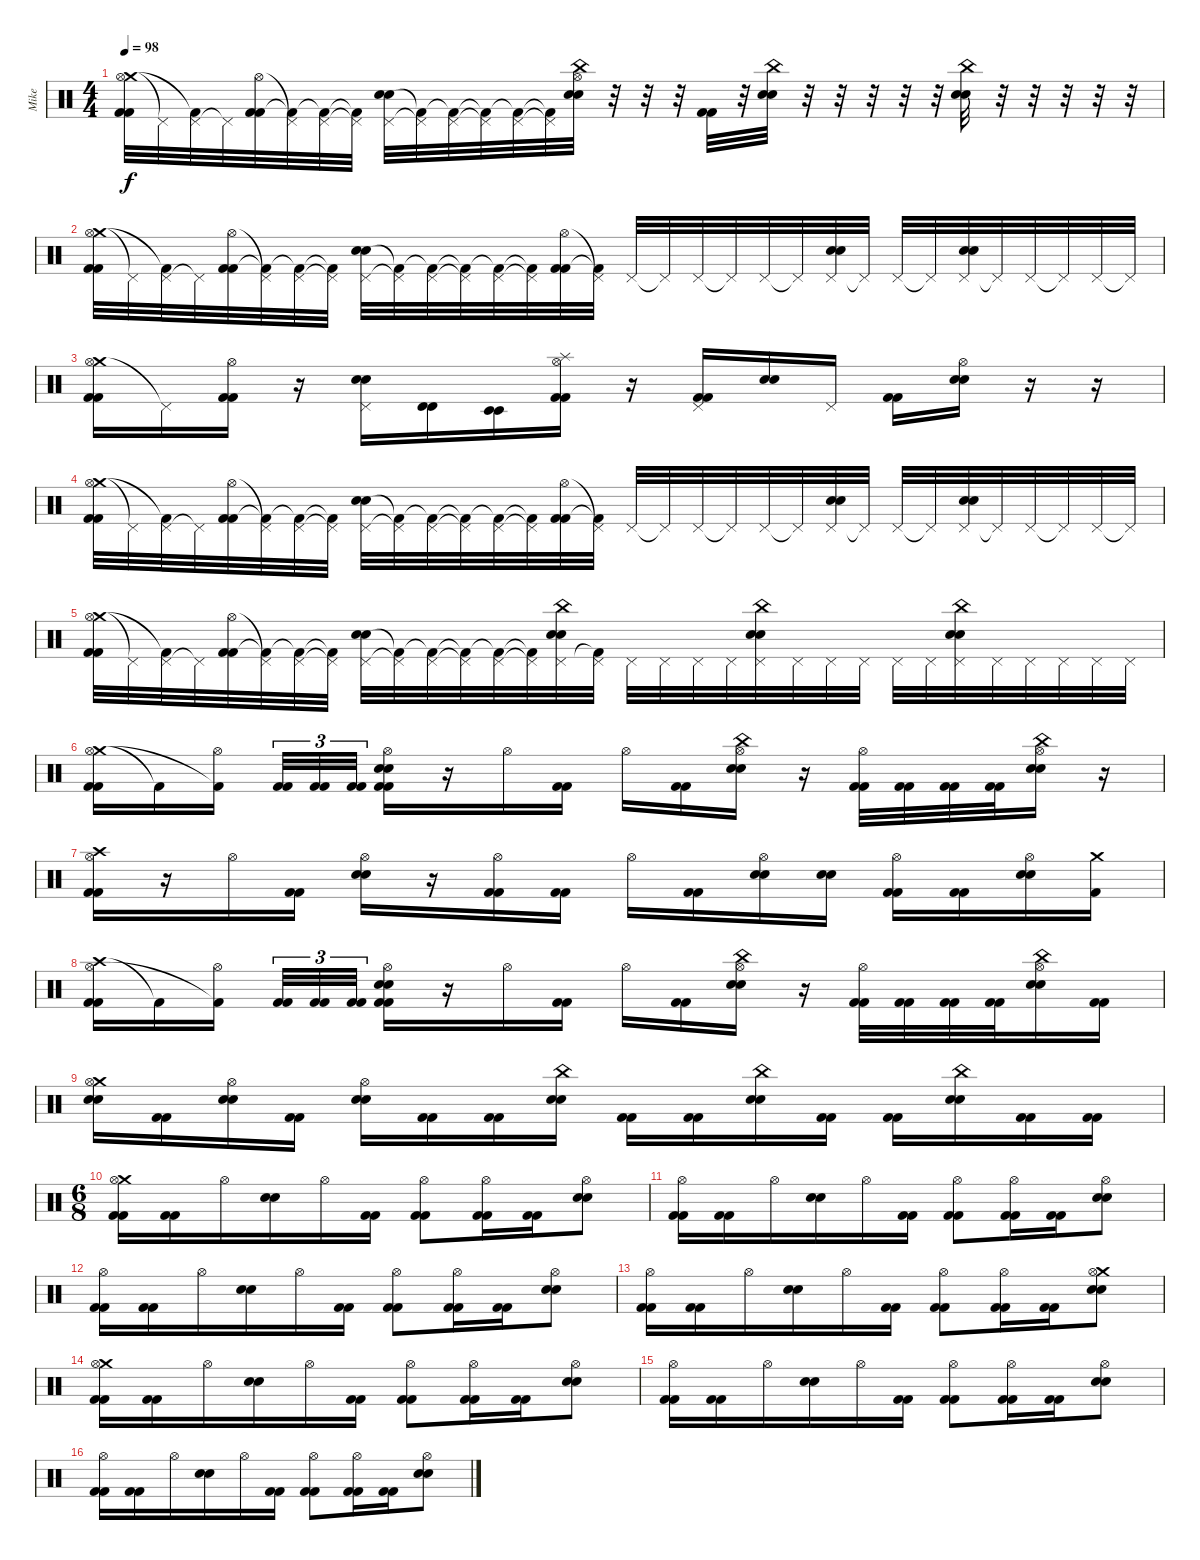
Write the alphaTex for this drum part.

\track ("Mike" "Mike") {instrument percussion}
\staff {score}
\articulation defaults
\ts (4 4)
\tempo 98
\clef neutral
\ks c
("Crash medium (hit)" "Hi-Hat (open)" "Kick (hit) 2" "Kick (hit) 2").32{dy f} "Pedal Hi-Hat (hit)"{t}.32 ("Pedal Hi-Hat (hit)" "Kick (hit) 2"{t}).32 "Pedal Hi-Hat (hit)"{t}.32 ("Hi-Hat (open)" "Kick (hit) 2" "Kick (hit) 2").32 ("Pedal Hi-Hat (hit)"{t} "Kick (hit) 2"{t}).32 ("Pedal Hi-Hat (hit)" "Kick (hit) 2"{t}).32 ("Pedal Hi-Hat (hit)"{t} "Kick (hit) 2"{t}).32 ("Pedal Hi-Hat (hit)" "Electric Snare (hit)" "Electric Snare (hit)").32 ("Pedal Hi-Hat (hit)"{t} "Kick (hit) 2"{t}).32 ("Pedal Hi-Hat (hit)" "Kick (hit) 2"{t}).32 ("Pedal Hi-Hat (hit)"{t} "Kick (hit) 2"{t}).32 ("Pedal Hi-Hat (hit)" "Kick (hit) 2"{t}).32 ("Pedal Hi-Hat (hit)"{t} "Kick (hit) 2"{t}).32 ("China (hit)" "Hi-Hat (open)" "Electric Snare (hit)" "Electric Snare (hit)").32 r.32 r.32 r.32 ("Kick (hit) 2" "Kick (hit) 2").32 r.32 ("China (hit)" "Electric Snare (hit)" "Electric Snare (hit)").32 r.32 r.32 r.32 r.32 r.32 ("China (hit)" "Electric Snare (hit)" "Electric Snare (hit)").32 r.32 r.32 r.32 r.32 r.32 |
("Crash medium (hit)" "Hi-Hat (open)" "Kick (hit) 2" "Kick (hit) 2").32 "Pedal Hi-Hat (hit)"{t}.32 ("Pedal Hi-Hat (hit)" "Kick (hit) 2"{t}).32 "Pedal Hi-Hat (hit)"{t}.32 ("Hi-Hat (open)" "Kick (hit) 2" "Kick (hit) 2").32 ("Pedal Hi-Hat (hit)"{t} "Kick (hit) 2"{t}).32 ("Pedal Hi-Hat (hit)" "Kick (hit) 2"{t}).32 ("Pedal Hi-Hat (hit)"{t} "Kick (hit) 2"{t}).32 ("Pedal Hi-Hat (hit)" "Electric Snare (hit)" "Electric Snare (hit)").32 ("Pedal Hi-Hat (hit)"{t} "Kick (hit) 2"{t}).32 ("Pedal Hi-Hat (hit)" "Kick (hit) 2"{t}).32 ("Pedal Hi-Hat (hit)"{t} "Kick (hit) 2"{t}).32 ("Pedal Hi-Hat (hit)" "Kick (hit) 2"{t}).32 ("Pedal Hi-Hat (hit)"{t} "Kick (hit) 2"{t}).32 ("Hi-Hat (open)" "Kick (hit) 2" "Kick (hit) 2").32 ("Pedal Hi-Hat (hit)"{t} "Kick (hit) 2"{t}).32 "Pedal Hi-Hat (hit)".32 "Pedal Hi-Hat (hit)"{t}.32 "Pedal Hi-Hat (hit)".32 "Pedal Hi-Hat (hit)"{t}.32 "Pedal Hi-Hat (hit)".32 "Pedal Hi-Hat (hit)"{t}.32 ("Pedal Hi-Hat (hit)" "Electric Snare (hit)" "Electric Snare (hit)").32 "Pedal Hi-Hat (hit)"{t}.32 "Pedal Hi-Hat (hit)".32 "Pedal Hi-Hat (hit)"{t}.32 ("Pedal Hi-Hat (hit)" "Electric Snare (hit)" "Electric Snare (hit)").32 "Pedal Hi-Hat (hit)"{t}.32 "Pedal Hi-Hat (hit)".32 "Pedal Hi-Hat (hit)"{t}.32 "Pedal Hi-Hat (hit)".32 "Pedal Hi-Hat (hit)"{t}.32 |
("Crash medium (hit)" "Hi-Hat (open)" "Kick (hit) 2" "Kick (hit) 2").16 "Pedal Hi-Hat (hit)"{t}.16 ("Hi-Hat (open)" "Kick (hit) 2" "Kick (hit) 2").16 r.16 ("Pedal Hi-Hat (hit)" "Electric Snare (hit)" "Electric Snare (hit)").16 ("Timbale high (hit)" "Timbale high (hit)").16 ("Timbale low (hit)" "Timbale low (hit)").16 ("Splash (hit)" "Hi-Hat (open)" "Kick (hit) 2" "Kick (hit) 2").16 r.16 ("Pedal Hi-Hat (hit)" "Kick (hit) 2" "Kick (hit) 2").16 ("Electric Snare (hit)" "Electric Snare (hit)").16 "Pedal Hi-Hat (hit)".16 ("Kick (hit) 2" "Kick (hit) 2").16 ("Hi-Hat (open)" "Electric Snare (hit)" "Electric Snare (hit)").16 r.16 r.16 |
("Crash medium (hit)" "Hi-Hat (open)" "Kick (hit) 2" "Kick (hit) 2").32 "Pedal Hi-Hat (hit)"{t}.32 ("Pedal Hi-Hat (hit)" "Kick (hit) 2"{t}).32 "Pedal Hi-Hat (hit)"{t}.32 ("Hi-Hat (open)" "Kick (hit) 2" "Kick (hit) 2").32 ("Pedal Hi-Hat (hit)"{t} "Kick (hit) 2"{t}).32 ("Pedal Hi-Hat (hit)" "Kick (hit) 2"{t}).32 ("Pedal Hi-Hat (hit)"{t} "Kick (hit) 2"{t}).32 ("Pedal Hi-Hat (hit)" "Electric Snare (hit)" "Electric Snare (hit)").32 ("Pedal Hi-Hat (hit)"{t} "Kick (hit) 2"{t}).32 ("Pedal Hi-Hat (hit)" "Kick (hit) 2"{t}).32 ("Pedal Hi-Hat (hit)"{t} "Kick (hit) 2"{t}).32 ("Pedal Hi-Hat (hit)" "Kick (hit) 2"{t}).32 ("Pedal Hi-Hat (hit)"{t} "Kick (hit) 2"{t}).32 ("Hi-Hat (open)" "Kick (hit) 2" "Kick (hit) 2").32 ("Pedal Hi-Hat (hit)"{t} "Kick (hit) 2"{t}).32 "Pedal Hi-Hat (hit)".32 "Pedal Hi-Hat (hit)"{t}.32 "Pedal Hi-Hat (hit)".32 "Pedal Hi-Hat (hit)"{t}.32 "Pedal Hi-Hat (hit)".32 "Pedal Hi-Hat (hit)"{t}.32 ("Pedal Hi-Hat (hit)" "Electric Snare (hit)" "Electric Snare (hit)").32 "Pedal Hi-Hat (hit)"{t}.32 "Pedal Hi-Hat (hit)".32 "Pedal Hi-Hat (hit)"{t}.32 ("Pedal Hi-Hat (hit)" "Electric Snare (hit)" "Electric Snare (hit)").32 "Pedal Hi-Hat (hit)"{t}.32 "Pedal Hi-Hat (hit)".32 "Pedal Hi-Hat (hit)"{t}.32 "Pedal Hi-Hat (hit)".32 "Pedal Hi-Hat (hit)"{t}.32 |
("Crash medium (hit)" "Hi-Hat (open)" "Kick (hit) 2" "Kick (hit) 2").32 "Pedal Hi-Hat (hit)"{t}.32 ("Pedal Hi-Hat (hit)" "Kick (hit) 2"{t}).32 "Pedal Hi-Hat (hit)"{t}.32 ("Hi-Hat (open)" "Kick (hit) 2" "Kick (hit) 2").32 ("Pedal Hi-Hat (hit)"{t} "Kick (hit) 2"{t}).32 ("Pedal Hi-Hat (hit)" "Kick (hit) 2"{t}).32 ("Pedal Hi-Hat (hit)"{t} "Kick (hit) 2"{t}).32 ("Pedal Hi-Hat (hit)" "Electric Snare (hit)" "Electric Snare (hit)").32 ("Pedal Hi-Hat (hit)"{t} "Kick (hit) 2"{t}).32 ("Pedal Hi-Hat (hit)" "Kick (hit) 2"{t}).32 ("Pedal Hi-Hat (hit)"{t} "Kick (hit) 2"{t}).32 ("Pedal Hi-Hat (hit)" "Kick (hit) 2"{t}).32 ("Pedal Hi-Hat (hit)"{t} "Kick (hit) 2"{t}).32 ("China (hit)" "Pedal Hi-Hat (hit)" "Electric Snare (hit)" "Electric Snare (hit)").32 ("Pedal Hi-Hat (hit)" "Kick (hit) 2"{t}).32 "Pedal Hi-Hat (hit)".32 "Pedal Hi-Hat (hit)".32 "Pedal Hi-Hat (hit)".32 "Pedal Hi-Hat (hit)".32 ("China (hit)" "Pedal Hi-Hat (hit)" "Electric Snare (hit)" "Electric Snare (hit)").32 "Pedal Hi-Hat (hit)".32 "Pedal Hi-Hat (hit)".32 "Pedal Hi-Hat (hit)".32 "Pedal Hi-Hat (hit)".32 "Pedal Hi-Hat (hit)".32 ("China (hit)" "Pedal Hi-Hat (hit)" "Electric Snare (hit)" "Electric Snare (hit)").32 "Pedal Hi-Hat (hit)".32 "Pedal Hi-Hat (hit)".32 "Pedal Hi-Hat (hit)".32 "Pedal Hi-Hat (hit)".32 "Pedal Hi-Hat (hit)".32 |
("Crash medium (hit)" "Hi-Hat (open)" "Kick (hit) 2" "Kick (hit) 2").16 "Kick (hit) 2"{t}.16 ("Hi-Hat (open)" "Kick (hit) 2"{t}).16 ("Kick (hit) 2" "Kick (hit) 2").32{tu (3 2)} ("Kick (hit) 2" "Kick (hit) 2").32{tu (3 2)} ("Kick (hit) 2" "Kick (hit) 2").32{tu (3 2)} ("Hi-Hat (open)" "Electric Snare (hit)" "Electric Snare (hit)" "Kick (hit) 2" "Kick (hit) 2").16 r.16 "Hi-Hat (open)".16 ("Kick (hit) 2" "Kick (hit) 2").16 "Hi-Hat (open)".16 ("Kick (hit) 2" "Kick (hit) 2").16 ("China (hit)" "Hi-Hat (open)" "Electric Snare (hit)" "Electric Snare (hit)").16 r.16 ("Hi-Hat (open)" "Kick (hit) 2" "Kick (hit) 2").32 ("Kick (hit) 2" "Kick (hit) 2").32 ("Kick (hit) 2" "Kick (hit) 2").32 ("Kick (hit) 2" "Kick (hit) 2").32 ("China (hit)" "Hi-Hat (open)" "Electric Snare (hit)" "Electric Snare (hit)").16 r.16 |
("Crash high (hit)" "Hi-Hat (open)" "Kick (hit) 2" "Kick (hit) 2").16 r.16 "Hi-Hat (open)".16 ("Kick (hit) 2" "Kick (hit) 2").16 ("Hi-Hat (open)" "Electric Snare (hit)" "Electric Snare (hit)").16 r.16 ("Hi-Hat (open)" "Kick (hit) 2" "Kick (hit) 2").16 ("Kick (hit) 2" "Kick (hit) 2").16 "Hi-Hat (open)".16 ("Kick (hit) 2" "Kick (hit) 2").16 ("Hi-Hat (open)" "Electric Snare (hit)" "Electric Snare (hit)").16 ("Electric Snare (hit)" "Electric Snare (hit)").16 ("Hi-Hat (open)" "Kick (hit) 2" "Kick (hit) 2").16 ("Kick (hit) 2" "Kick (hit) 2").16 ("Hi-Hat (open)" "Electric Snare (hit)" "Electric Snare (hit)").16 ("Crash medium (hit)" "Kick (hit) 2").16 |
("Crash high (hit)" "Hi-Hat (open)" "Kick (hit) 2" "Kick (hit) 2").16 "Kick (hit) 2"{t}.16 ("Hi-Hat (open)" "Kick (hit) 2"{t}).16 ("Kick (hit) 2" "Kick (hit) 2").32{tu (3 2)} ("Kick (hit) 2" "Kick (hit) 2").32{tu (3 2)} ("Kick (hit) 2" "Kick (hit) 2").32{tu (3 2)} ("Hi-Hat (open)" "Electric Snare (hit)" "Electric Snare (hit)" "Kick (hit) 2" "Kick (hit) 2").16 r.16 "Hi-Hat (open)".16 ("Kick (hit) 2" "Kick (hit) 2").16 "Hi-Hat (open)".16 ("Kick (hit) 2" "Kick (hit) 2").16 ("China (hit)" "Hi-Hat (open)" "Electric Snare (hit)" "Electric Snare (hit)").16 r.16 ("Hi-Hat (open)" "Kick (hit) 2" "Kick (hit) 2").32 ("Kick (hit) 2" "Kick (hit) 2").32 ("Kick (hit) 2" "Kick (hit) 2").32 ("Kick (hit) 2" "Kick (hit) 2").32 ("China (hit)" "Hi-Hat (open)" "Electric Snare (hit)" "Electric Snare (hit)").16 ("Kick (hit) 2" "Kick (hit) 2").16 |
("Crash medium (hit)" "Hi-Hat (open)" "Electric Snare (hit)" "Electric Snare (hit)").16 ("Kick (hit) 2" "Kick (hit) 2").16 ("Hi-Hat (open)" "Electric Snare (hit)" "Electric Snare (hit)").16 ("Kick (hit) 2" "Kick (hit) 2").16 ("Hi-Hat (open)" "Electric Snare (hit)" "Electric Snare (hit)").16 ("Kick (hit) 2" "Kick (hit) 2").16 ("Kick (hit) 2" "Kick (hit) 2").16 ("China (hit)" "Electric Snare (hit)" "Electric Snare (hit)").16 ("Kick (hit) 2" "Kick (hit) 2").16 ("Kick (hit) 2" "Kick (hit) 2").16 ("China (hit)" "Electric Snare (hit)" "Electric Snare (hit)").16 ("Kick (hit) 2" "Kick (hit) 2").16 ("Kick (hit) 2" "Kick (hit) 2").16 ("China (hit)" "Electric Snare (hit)" "Electric Snare (hit)").16 ("Kick (hit) 2" "Kick (hit) 2").16 ("Kick (hit) 2" "Kick (hit) 2").16 |
\ts (6 8)
("Crash medium (hit)" "Hi-Hat (open)" "Kick (hit) 2" "Kick (hit) 2").16 ("Kick (hit) 2" "Kick (hit) 2").16 "Hi-Hat (open)".16 ("Electric Snare (hit)" "Electric Snare (hit)").16 "Hi-Hat (open)".16 ("Kick (hit) 2" "Kick (hit) 2").16 ("Hi-Hat (open)" "Kick (hit) 2" "Kick (hit) 2").8 ("Hi-Hat (open)" "Kick (hit) 2" "Kick (hit) 2").16 ("Kick (hit) 2" "Kick (hit) 2").16 ("Hi-Hat (open)" "Electric Snare (hit)" "Electric Snare (hit)").8 |
("Hi-Hat (open)" "Kick (hit) 2" "Kick (hit) 2").16 ("Kick (hit) 2" "Kick (hit) 2").16 "Hi-Hat (open)".16 ("Electric Snare (hit)" "Electric Snare (hit)").16 "Hi-Hat (open)".16 ("Kick (hit) 2" "Kick (hit) 2").16 ("Hi-Hat (open)" "Kick (hit) 2" "Kick (hit) 2").8 ("Hi-Hat (open)" "Kick (hit) 2" "Kick (hit) 2").16 ("Kick (hit) 2" "Kick (hit) 2").16 ("Hi-Hat (open)" "Electric Snare (hit)" "Electric Snare (hit)").8 |
("Hi-Hat (open)" "Kick (hit) 2" "Kick (hit) 2").16 ("Kick (hit) 2" "Kick (hit) 2").16 "Hi-Hat (open)".16 ("Electric Snare (hit)" "Electric Snare (hit)").16 "Hi-Hat (open)".16 ("Kick (hit) 2" "Kick (hit) 2").16 ("Hi-Hat (open)" "Kick (hit) 2" "Kick (hit) 2").8 ("Hi-Hat (open)" "Kick (hit) 2" "Kick (hit) 2").16 ("Kick (hit) 2" "Kick (hit) 2").16 ("Hi-Hat (open)" "Electric Snare (hit)" "Electric Snare (hit)").8 |
("Hi-Hat (open)" "Kick (hit) 2" "Kick (hit) 2").16 ("Kick (hit) 2" "Kick (hit) 2").16 "Hi-Hat (open)".16 ("Electric Snare (hit)" "Electric Snare (hit)").16 "Hi-Hat (open)".16 ("Kick (hit) 2" "Kick (hit) 2").16 ("Hi-Hat (open)" "Kick (hit) 2" "Kick (hit) 2").8 ("Hi-Hat (open)" "Kick (hit) 2" "Kick (hit) 2").16 ("Kick (hit) 2" "Kick (hit) 2").16 ("Crash medium (hit)" "Hi-Hat (open)" "Electric Snare (hit)" "Electric Snare (hit)").8 |
("Crash medium (hit)" "Hi-Hat (open)" "Kick (hit) 2" "Kick (hit) 2").16 ("Kick (hit) 2" "Kick (hit) 2").16 "Hi-Hat (open)".16 ("Electric Snare (hit)" "Electric Snare (hit)").16 "Hi-Hat (open)".16 ("Kick (hit) 2" "Kick (hit) 2").16 ("Hi-Hat (open)" "Kick (hit) 2" "Kick (hit) 2").8 ("Hi-Hat (open)" "Kick (hit) 2" "Kick (hit) 2").16 ("Kick (hit) 2" "Kick (hit) 2").16 ("Hi-Hat (open)" "Electric Snare (hit)" "Electric Snare (hit)").8 |
("Hi-Hat (open)" "Kick (hit) 2" "Kick (hit) 2").16 ("Kick (hit) 2" "Kick (hit) 2").16 "Hi-Hat (open)".16 ("Electric Snare (hit)" "Electric Snare (hit)").16 "Hi-Hat (open)".16 ("Kick (hit) 2" "Kick (hit) 2").16 ("Hi-Hat (open)" "Kick (hit) 2" "Kick (hit) 2").8 ("Hi-Hat (open)" "Kick (hit) 2" "Kick (hit) 2").16 ("Kick (hit) 2" "Kick (hit) 2").16 ("Hi-Hat (open)" "Electric Snare (hit)" "Electric Snare (hit)").8 |
("Hi-Hat (open)" "Kick (hit) 2" "Kick (hit) 2").16 ("Kick (hit) 2" "Kick (hit) 2").16 "Hi-Hat (open)".16 ("Electric Snare (hit)" "Electric Snare (hit)").16 "Hi-Hat (open)".16 ("Kick (hit) 2" "Kick (hit) 2").16 ("Hi-Hat (open)" "Kick (hit) 2" "Kick (hit) 2").8 ("Hi-Hat (open)" "Kick (hit) 2" "Kick (hit) 2").16 ("Kick (hit) 2" "Kick (hit) 2").16 ("Hi-Hat (open)" "Electric Snare (hit)" "Electric Snare (hit)").8
